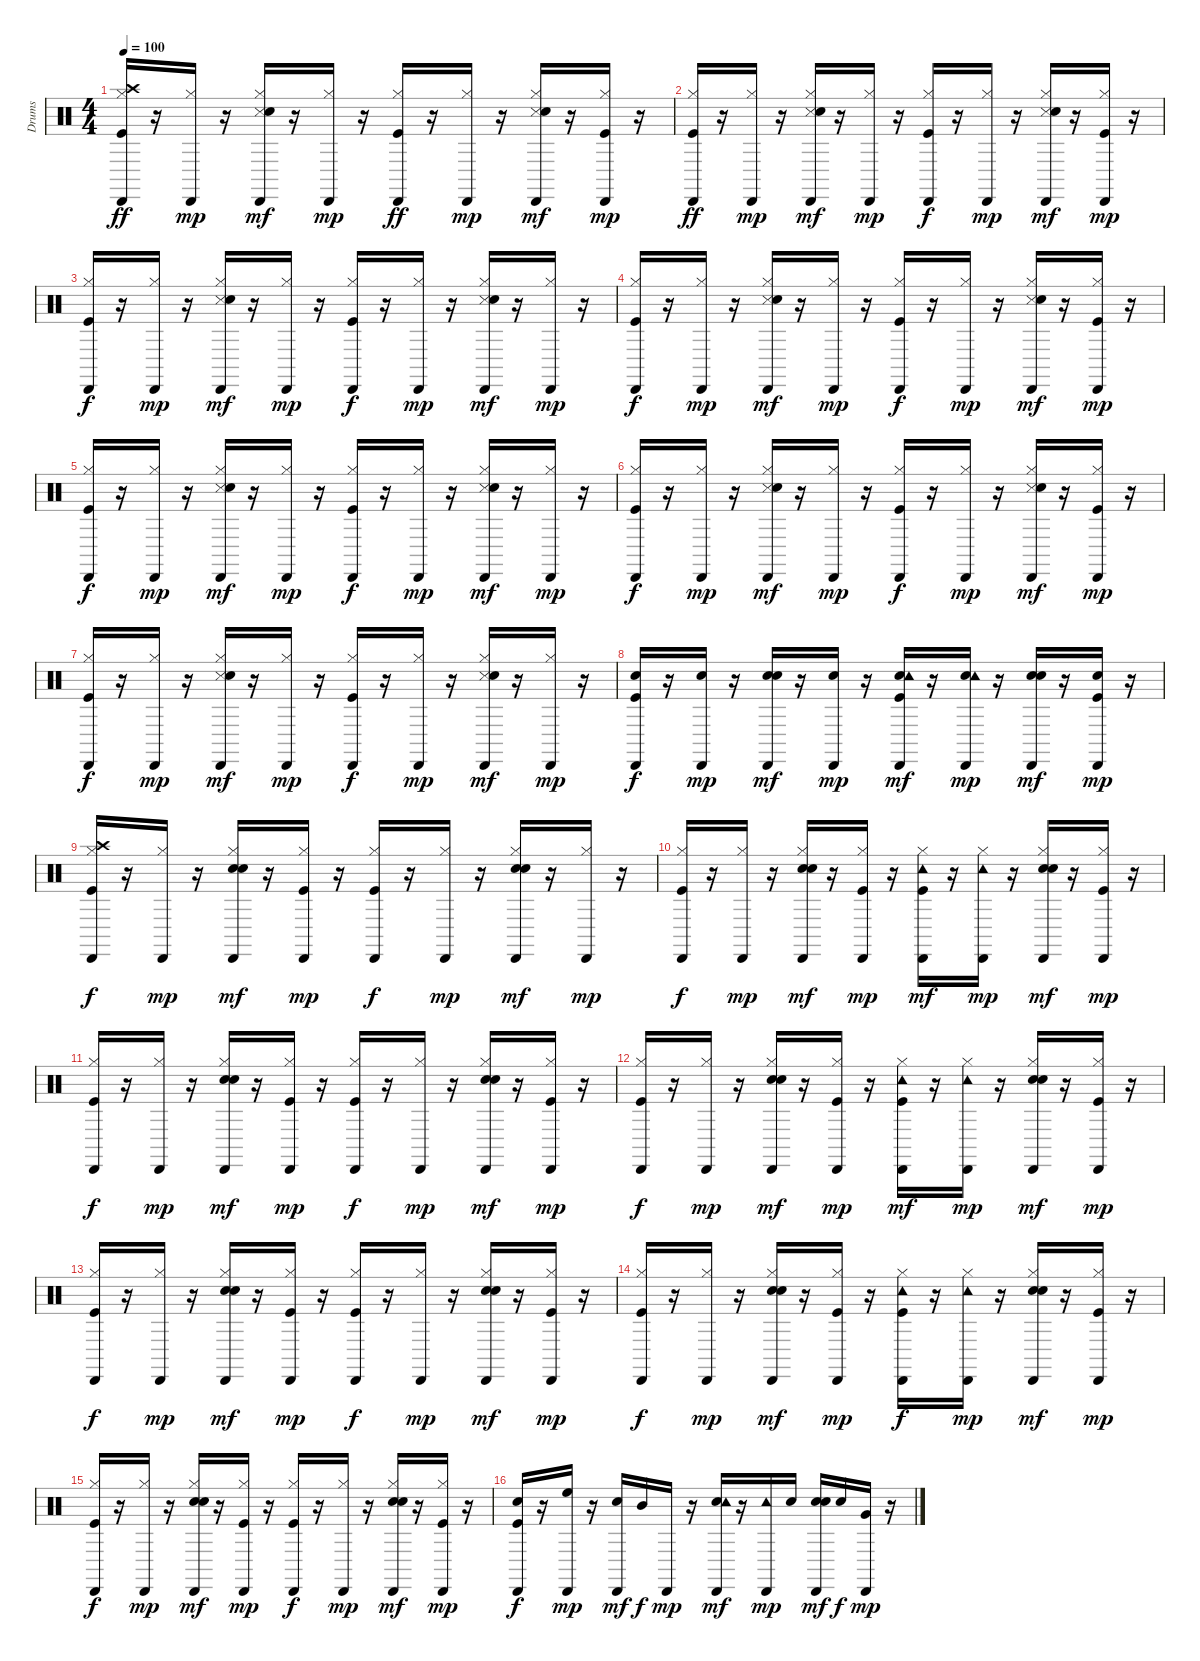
\track ("Drums" "Drums") {instrument percussion}
\staff {score}
\articulation defaults
\ts (4 4)
\tempo 100
\clef neutral
\ks c
("Kick (hit)" "Hi-Hat (closed)" "Crash high (hit)" "Cabasa (hit)").16{dy ff} r.16 ("Hi-Hat (closed)" "Cabasa (hit)").16{dy mp} r.16 ("Hi-Hat (closed)" "Snare (side stick) 3" "Hand Clap (hit)" "Cabasa (hit)").16{dy mf} r.16 ("Hi-Hat (closed)" "Cabasa (hit)").16{dy mp} r.16 ("Kick (hit)" "Hi-Hat (closed)" "Cabasa (hit)").16{dy ff} r.16 ("Hi-Hat (closed)" "Cabasa (hit)").16{dy mp} r.16 ("Hi-Hat (closed)" "Snare (side stick) 3" "Hand Clap (hit)" "Cabasa (hit)").16{dy mf} r.16 ("Kick (hit)" "Hi-Hat (closed)" "Cabasa (hit)").16{dy mp} r.16 |
("Kick (hit)" "Hi-Hat (closed)" "Cabasa (hit)").16{dy ff} r.16 ("Hi-Hat (closed)" "Cabasa (hit)").16{dy mp} r.16 ("Hi-Hat (closed)" "Snare (side stick) 3" "Hand Clap (hit)" "Cabasa (hit)").16{dy mf} r.16 ("Hi-Hat (closed)" "Cabasa (hit)").16{dy mp} r.16 ("Kick (hit)" "Hi-Hat (closed)" "Cabasa (hit)").16{dy f} r.16 ("Hi-Hat (closed)" "Cabasa (hit)").16{dy mp} r.16 ("Hi-Hat (closed)" "Snare (side stick) 3" "Hand Clap (hit)" "Cabasa (hit)").16{dy mf} r.16 ("Kick (hit)" "Hi-Hat (closed)" "Cabasa (hit)").16{dy mp} r.16 |
("Kick (hit)" "Hi-Hat (closed)" "Cabasa (hit)").16{dy f} r.16 ("Hi-Hat (closed)" "Cabasa (hit)").16{dy mp} r.16 ("Hi-Hat (closed)" "Snare (side stick) 3" "Hand Clap (hit)" "Cabasa (hit)").16{dy mf} r.16 ("Hi-Hat (closed)" "Cabasa (hit)").16{dy mp} r.16 ("Kick (hit)" "Hi-Hat (closed)" "Cabasa (hit)").16{dy f} r.16 ("Hi-Hat (closed)" "Cabasa (hit)").16{dy mp} r.16 ("Hi-Hat (closed)" "Snare (side stick) 3" "Hand Clap (hit)" "Cabasa (hit)").16{dy mf} r.16 ("Hi-Hat (closed)" "Cabasa (hit)").16{dy mp} r.16 |
("Kick (hit)" "Hi-Hat (closed)" "Cabasa (hit)").16{dy f} r.16 ("Hi-Hat (closed)" "Cabasa (hit)").16{dy mp} r.16 ("Hi-Hat (closed)" "Snare (side stick) 3" "Hand Clap (hit)" "Cabasa (hit)").16{dy mf} r.16 ("Hi-Hat (closed)" "Cabasa (hit)").16{dy mp} r.16 ("Kick (hit)" "Hi-Hat (closed)" "Cabasa (hit)").16{dy f} r.16 ("Hi-Hat (closed)" "Cabasa (hit)").16{dy mp} r.16 ("Hi-Hat (closed)" "Snare (side stick) 3" "Hand Clap (hit)" "Cabasa (hit)").16{dy mf} r.16 ("Kick (hit)" "Hi-Hat (closed)" "Cabasa (hit)").16{dy mp} r.16 |
("Kick (hit)" "Hi-Hat (closed)" "Cabasa (hit)").16{dy f} r.16 ("Hi-Hat (closed)" "Cabasa (hit)").16{dy mp} r.16 ("Hi-Hat (closed)" "Snare (side stick) 3" "Hand Clap (hit)" "Cabasa (hit)").16{dy mf} r.16 ("Hi-Hat (closed)" "Cabasa (hit)").16{dy mp} r.16 ("Kick (hit)" "Hi-Hat (closed)" "Cabasa (hit)").16{dy f} r.16 ("Hi-Hat (closed)" "Cabasa (hit)").16{dy mp} r.16 ("Hi-Hat (closed)" "Snare (side stick) 3" "Hand Clap (hit)" "Cabasa (hit)").16{dy mf} r.16 ("Hi-Hat (closed)" "Cabasa (hit)").16{dy mp} r.16 |
("Kick (hit)" "Hi-Hat (closed)" "Cabasa (hit)").16{dy f} r.16 ("Hi-Hat (closed)" "Cabasa (hit)").16{dy mp} r.16 ("Hi-Hat (closed)" "Snare (side stick) 3" "Hand Clap (hit)" "Cabasa (hit)").16{dy mf} r.16 ("Hi-Hat (closed)" "Cabasa (hit)").16{dy mp} r.16 ("Kick (hit)" "Hi-Hat (closed)" "Cabasa (hit)").16{dy f} r.16 ("Hi-Hat (closed)" "Cabasa (hit)").16{dy mp} r.16 ("Hi-Hat (closed)" "Snare (side stick) 3" "Hand Clap (hit)" "Cabasa (hit)").16{dy mf} r.16 ("Kick (hit)" "Hi-Hat (closed)" "Cabasa (hit)").16{dy mp} r.16 |
("Kick (hit)" "Hi-Hat (closed)" "Cabasa (hit)").16{dy f} r.16 ("Hi-Hat (closed)" "Cabasa (hit)").16{dy mp} r.16 ("Hi-Hat (closed)" "Snare (side stick) 3" "Hand Clap (hit)" "Cabasa (hit)").16{dy mf} r.16 ("Hi-Hat (closed)" "Cabasa (hit)").16{dy mp} r.16 ("Kick (hit)" "Hi-Hat (closed)" "Cabasa (hit)").16{dy f} r.16 ("Hi-Hat (closed)" "Cabasa (hit)").16{dy mp} r.16 ("Hi-Hat (closed)" "Snare (side stick) 3" "Hand Clap (hit)" "Cabasa (hit)").16{dy mf} r.16 ("Hi-Hat (closed)" "Cabasa (hit)").16{dy mp} r.16 |
("Kick (hit)" "Snare (hit) 2" "Cabasa (hit)").16{dy f} r.16 ("Snare (hit) 2" "Cabasa (hit)").16{dy mp} r.16 ("Snare (hit) 2" "Hand Clap (hit)" "Cabasa (hit)").16{dy mf} r.16 ("Snare (hit) 2" "Cabasa (hit)").16{dy mp} r.16 ("Kick (hit)" "Snare (hit) 2" "Tambourine (hit)" "Cabasa (hit)").16{dy mf} r.16 ("Snare (hit) 2" "Tambourine (hit)" "Cabasa (hit)").16{dy mp} r.16 ("Snare (hit) 2" "Hand Clap (hit)" "Cabasa (hit)").16{dy mf} r.16 ("Kick (hit)" "Snare (hit) 2" "Cabasa (hit)").16{dy mp} r.16 |
("Kick (hit)" "Hi-Hat (closed)" "Crash high (hit)" "Cabasa (hit)").16{dy f} r.16 ("Hi-Hat (closed)" "Cabasa (hit)").16{dy mp} r.16 ("Snare (hit) 2" "Hi-Hat (closed)" "Hand Clap (hit)" "Cabasa (hit)").16{dy mf} r.16 ("Kick (hit)" "Hi-Hat (closed)" "Cabasa (hit)").16{dy mp} r.16 ("Kick (hit)" "Hi-Hat (closed)" "Cabasa (hit)").16{dy f} r.16 ("Hi-Hat (closed)" "Cabasa (hit)").16{dy mp} r.16 ("Snare (hit) 2" "Hi-Hat (closed)" "Hand Clap (hit)" "Cabasa (hit)").16{dy mf} r.16 ("Hi-Hat (closed)" "Cabasa (hit)").16{dy mp} r.16 |
("Kick (hit)" "Hi-Hat (closed)" "Cabasa (hit)").16{dy f} r.16 ("Hi-Hat (closed)" "Cabasa (hit)").16{dy mp} r.16 ("Snare (hit) 2" "Hi-Hat (closed)" "Hand Clap (hit)" "Cabasa (hit)").16{dy mf} r.16 ("Kick (hit)" "Hi-Hat (closed)" "Cabasa (hit)").16{dy mp} r.16 ("Kick (hit)" "Hi-Hat (closed)" "Tambourine (hit)" "Cabasa (hit)").16{dy mf} r.16 ("Hi-Hat (closed)" "Tambourine (hit)" "Cabasa (hit)").16{dy mp} r.16 ("Snare (hit) 2" "Hi-Hat (closed)" "Hand Clap (hit)" "Cabasa (hit)").16{dy mf} r.16 ("Kick (hit)" "Hi-Hat (closed)" "Cabasa (hit)").16{dy mp} r.16 |
("Kick (hit)" "Hi-Hat (closed)" "Cabasa (hit)").16{dy f} r.16 ("Hi-Hat (closed)" "Cabasa (hit)").16{dy mp} r.16 ("Snare (hit) 2" "Hi-Hat (closed)" "Hand Clap (hit)" "Cabasa (hit)").16{dy mf} r.16 ("Kick (hit)" "Hi-Hat (closed)" "Cabasa (hit)").16{dy mp} r.16 ("Kick (hit)" "Hi-Hat (closed)" "Cabasa (hit)").16{dy f} r.16 ("Hi-Hat (closed)" "Cabasa (hit)").16{dy mp} r.16 ("Snare (hit) 2" "Hi-Hat (closed)" "Hand Clap (hit)" "Cabasa (hit)").16{dy mf} r.16 ("Kick (hit)" "Hi-Hat (closed)" "Cabasa (hit)").16{dy mp} r.16 |
("Kick (hit)" "Hi-Hat (closed)" "Cabasa (hit)").16{dy f} r.16 ("Hi-Hat (closed)" "Cabasa (hit)").16{dy mp} r.16 ("Snare (hit) 2" "Hi-Hat (closed)" "Hand Clap (hit)" "Cabasa (hit)").16{dy mf} r.16 ("Kick (hit)" "Hi-Hat (closed)" "Cabasa (hit)").16{dy mp} r.16 ("Kick (hit)" "Hi-Hat (closed)" "Tambourine (hit)" "Cabasa (hit)").16{dy mf} r.16 ("Hi-Hat (closed)" "Tambourine (hit)" "Cabasa (hit)").16{dy mp} r.16 ("Snare (hit) 2" "Hi-Hat (closed)" "Hand Clap (hit)" "Cabasa (hit)").16{dy mf} r.16 ("Kick (hit)" "Hi-Hat (closed)" "Cabasa (hit)").16{dy mp} r.16 |
("Kick (hit)" "Hi-Hat (closed)" "Cabasa (hit)").16{dy f} r.16 ("Hi-Hat (closed)" "Cabasa (hit)").16{dy mp} r.16 ("Snare (hit) 2" "Hi-Hat (closed)" "Hand Clap (hit)" "Cabasa (hit)").16{dy mf} r.16 ("Kick (hit)" "Hi-Hat (closed)" "Cabasa (hit)").16{dy mp} r.16 ("Kick (hit)" "Hi-Hat (closed)" "Cabasa (hit)").16{dy f} r.16 ("Hi-Hat (closed)" "Cabasa (hit)").16{dy mp} r.16 ("Snare (hit) 2" "Hi-Hat (closed)" "Hand Clap (hit)" "Cabasa (hit)").16{dy mf} r.16 ("Kick (hit)" "Hi-Hat (closed)" "Cabasa (hit)").16{dy mp} r.16 |
("Kick (hit)" "Hi-Hat (closed)" "Cabasa (hit)").16{dy f} r.16 ("Hi-Hat (closed)" "Cabasa (hit)").16{dy mp} r.16 ("Snare (hit) 2" "Hi-Hat (closed)" "Hand Clap (hit)" "Cabasa (hit)").16{dy mf} r.16 ("Kick (hit)" "Hi-Hat (closed)" "Cabasa (hit)").16{dy mp} r.16 ("Kick (hit)" "Hi-Hat (closed)" "Tambourine (hit)" "Cabasa (hit)").16{dy f} r.16 ("Hi-Hat (closed)" "Tambourine (hit)" "Cabasa (hit)").16{dy mp} r.16 ("Snare (hit) 2" "Hi-Hat (closed)" "Hand Clap (hit)" "Cabasa (hit)").16{dy mf} r.16 ("Kick (hit)" "Hi-Hat (closed)" "Cabasa (hit)").16{dy mp} r.16 |
("Kick (hit)" "Hi-Hat (closed)" "Cabasa (hit)").16{dy f} r.16 ("Hi-Hat (closed)" "Cabasa (hit)").16{dy mp} r.16 ("Snare (hit) 2" "Hi-Hat (closed)" "Hand Clap (hit)" "Cabasa (hit)").16{dy mf} r.16 ("Kick (hit)" "Hi-Hat (closed)" "Cabasa (hit)").16{dy mp} r.16 ("Kick (hit)" "Hi-Hat (closed)" "Cabasa (hit)").16{dy f} r.16 ("Hi-Hat (closed)" "Cabasa (hit)").16{dy mp} r.16 ("Snare (hit) 2" "Hi-Hat (closed)" "Hand Clap (hit)" "Cabasa (hit)").16{dy mf} r.16 ("Kick (hit)" "Hi-Hat (closed)" "Cabasa (hit)").16{dy mp} r.16 |
("Kick (hit)" "Snare (hit) 2" "Cabasa (hit)").16{dy f} r.16 ("High Floor Tom (hit)" "Cabasa (hit)").16{dy mp} r.16 ("Hand Clap (hit)" "Cabasa (hit)").16{dy mf} "Mid Tom (hit)".16{dy f} "Cabasa (hit)".16{dy mp} r.16 ("Snare (hit) 2" "Tambourine (hit)" "Cabasa (hit)").16{dy mf} r.16 ("Tambourine (hit)" "Cabasa (hit)").16{dy mp} "Snare (hit) 2".16 ("Snare (hit) 2" "Hand Clap (hit)" "Cabasa (hit)").16{dy mf} "Snare (hit) 2".16{dy f} ("Very Low Tom (hit)" "Cabasa (hit)").16{dy mp} r.16
